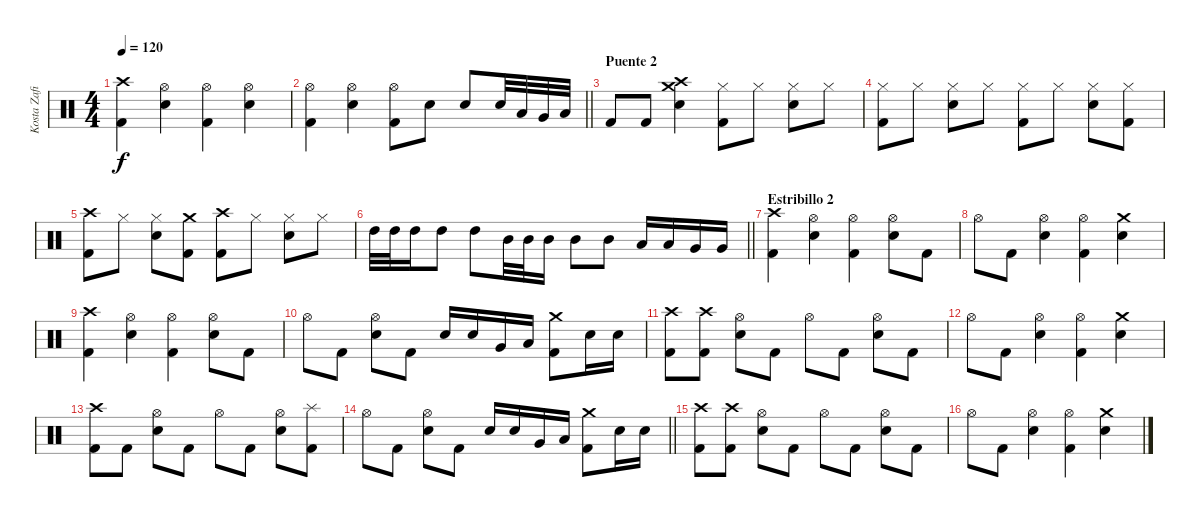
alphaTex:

\track ("Kosta Zafiriou" "Kosta Zafi") {instrument percussion}
\staff {score}
\articulation defaults
\ts (4 4)
\tempo 120
\clef neutral
\ks c
("Crash high (hit)" "Kick (hit) 2").4{dy f} ("Hi-Hat (open)" "Electric Snare (hit)").4 ("Hi-Hat (open)" "Kick (hit) 2").4 ("Hi-Hat (open)" "Electric Snare (hit)").4 |
\barLineRight lightlight
("Hi-Hat (open)" "Kick (hit) 2").4 ("Hi-Hat (open)" "Electric Snare (hit)").4 ("Hi-Hat (open)" "Kick (hit) 2").8 "Electric Snare (hit)".8 "Electric Snare (hit)".8 "Electric Snare (hit)".32 "Low Tom (hit)".32 "Very Low Tom (hit)".32 "Low Floor Tom (hit)".32 |
\section ("" "Puente 2")
"Kick (hit) 2".8 "Kick (hit) 2".8 ("Crash medium (hit)" "Crash high (hit)" "Electric Snare (hit)").4 ("Hi-Hat (closed)" "Kick (hit) 2").8 "Hi-Hat (closed)".8 ("Hi-Hat (closed)" "Electric Snare (hit)").8 "Hi-Hat (closed)".8 |
("Hi-Hat (closed)" "Kick (hit) 2").8 "Hi-Hat (closed)".8 ("Hi-Hat (closed)" "Electric Snare (hit)").8 "Hi-Hat (closed)".8 ("Hi-Hat (closed)" "Kick (hit) 2").8 "Hi-Hat (closed)".8 ("Hi-Hat (closed)" "Electric Snare (hit)").8 ("Hi-Hat (closed)" "Kick (hit) 2").8 |
("Crash high (hit)" "Kick (hit) 2").8 "Hi-Hat (closed)".8 ("Hi-Hat (closed)" "Electric Snare (hit)").8 ("Crash medium (hit)" "Kick (hit) 2").8 ("Crash high (hit)" "Kick (hit) 2").8 "Hi-Hat (closed)".8 ("Hi-Hat (closed)" "Electric Snare (hit)").8 "Hi-Hat (closed)".8 |
\barLineRight lightlight "High Tom (hit)".32 "High Tom (hit)".32 "High Tom (hit)".16 "High Tom (hit)".8 "High Tom (hit)".8 "Mid Tom (hit)".32 "Mid Tom (hit)".32 "Mid Tom (hit)".16 "Mid Tom (hit)".8 "Mid Tom (hit)".8 "Low Tom (hit)".16 "Low Tom (hit)".16 "Very Low Tom (hit)".16 "Very Low Tom (hit)".16
|
\section ("" "Estribillo 2")
("Crash high (hit)" "Kick (hit) 2").4 ("Hi-Hat (open)" "Electric Snare (hit)").4 ("Hi-Hat (open)" "Kick (hit) 2").4 ("Hi-Hat (open)" "Electric Snare (hit)").8 "Kick (hit) 2".8 |
"Hi-Hat (open)".8 "Kick (hit) 2".8 ("Hi-Hat (open)" "Electric Snare (hit)").4 ("Hi-Hat (open)" "Kick (hit) 2").4 ("Crash medium (hit)" "Electric Snare (hit)").4 |
("Crash high (hit)" "Kick (hit) 2").4 ("Hi-Hat (open)" "Electric Snare (hit)").4 ("Hi-Hat (open)" "Kick (hit) 2").4 ("Hi-Hat (open)" "Electric Snare (hit)").8 "Kick (hit) 2".8 |
"Hi-Hat (open)".8 "Kick (hit) 2".8 ("Hi-Hat (open)" "Electric Snare (hit)").8 "Kick (hit) 2".8 "Electric Snare (hit)".16 "Electric Snare (hit)".16 "Very Low Tom (hit)".16 "Low Floor Tom (hit)".16 ("Crash medium (hit)" "Kick (hit) 2").8 "Electric Snare (hit)".16 "Electric Snare (hit)".16 |
("Crash high (hit)" "Kick (hit) 2").8 ("Crash high (hit)" "Kick (hit) 2").8 ("Hi-Hat (open)" "Electric Snare (hit)").8 "Kick (hit) 2".8 "Hi-Hat (open)".8 "Kick (hit) 2".8 ("Hi-Hat (open)" "Electric Snare (hit)").8 "Kick (hit) 2".8 |
"Hi-Hat (open)".8 "Kick (hit) 2".8 ("Hi-Hat (open)" "Electric Snare (hit)").4 ("Hi-Hat (open)" "Kick (hit) 2").4 ("Crash medium (hit)" "Electric Snare (hit)").4 |
("Crash high (hit)" "Kick (hit) 2").8 "Kick (hit) 2".8 ("Hi-Hat (open)" "Electric Snare (hit)").8 "Kick (hit) 2".8 "Hi-Hat (open)".8 "Kick (hit) 2".8 ("Hi-Hat (open)" "Electric Snare (hit)").8 ("Splash (hit)" "Kick (hit) 2").8 |
\barLineRight lightlight "Hi-Hat (open)".8 "Kick (hit) 2".8
("Hi-Hat (open)" "Electric Snare (hit)").8 "Kick (hit) 2".8 "Electric Snare (hit)".16 "Electric Snare (hit)".16 "Very Low Tom (hit)".16 "Low Floor Tom (hit)".16 ("Crash medium (hit)" "Kick (hit) 2").8 "Electric Snare (hit)".16 "Electric Snare (hit)".16 |
("Crash high (hit)" "Kick (hit) 2").8 ("Crash high (hit)" "Kick (hit) 2").8 ("Hi-Hat (open)" "Electric Snare (hit)").8 "Kick (hit) 2".8 "Hi-Hat (open)".8 "Kick (hit) 2".8 ("Hi-Hat (open)" "Electric Snare (hit)").8 "Kick (hit) 2".8 |
"Hi-Hat (open)".8 "Kick (hit) 2".8 ("Hi-Hat (open)" "Electric Snare (hit)").4 ("Hi-Hat (open)" "Kick (hit) 2").4 ("Crash medium (hit)" "Electric Snare (hit)").4
